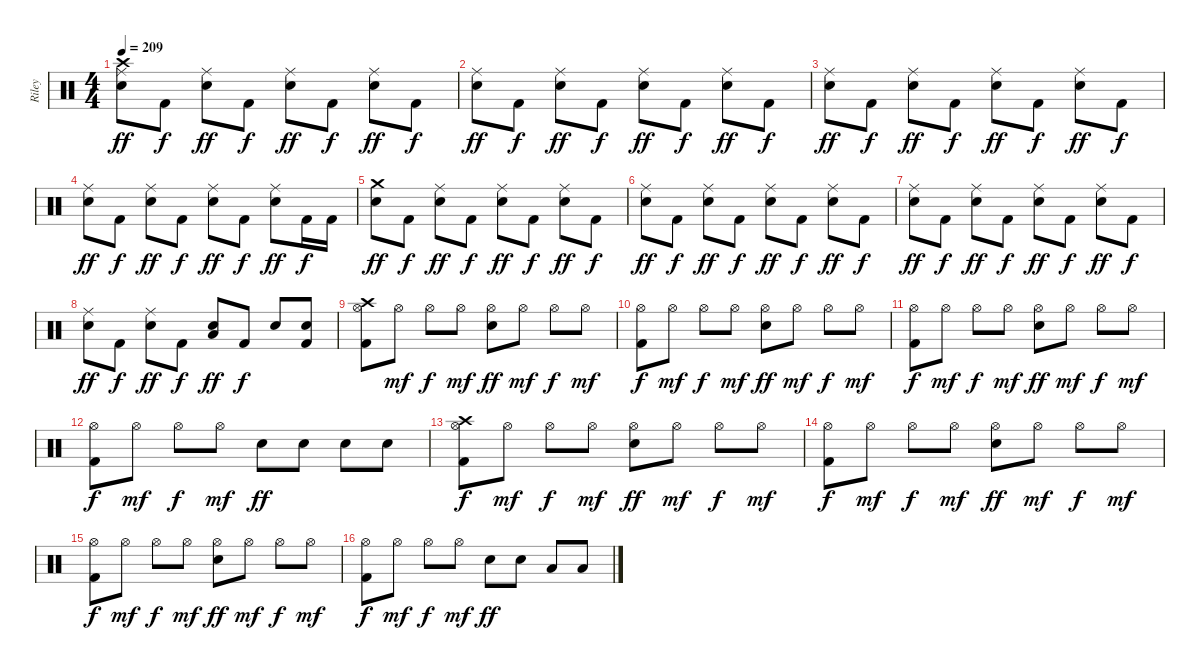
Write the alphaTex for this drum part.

\track ("Riley" "Riley") {instrument percussion}
\staff {score}
\articulation defaults
\ts (4 4)
\tempo 209
\clef neutral
\ks c
("Crash high (hit)" "Ride (middle)" "Electric Snare (hit)").8{dy ff} "Kick (hit) 2".8{dy f} ("Ride (middle)" "Electric Snare (hit)").8{dy ff} "Kick (hit) 2".8{dy f} ("Ride (middle)" "Electric Snare (hit)").8{dy ff} "Kick (hit) 2".8{dy f} ("Ride (middle)" "Electric Snare (hit)").8{dy ff} "Kick (hit) 2".8{dy f} |
("Ride (middle)" "Electric Snare (hit)").8{dy ff} "Kick (hit) 2".8{dy f} ("Ride (middle)" "Electric Snare (hit)").8{dy ff} "Kick (hit) 2".8{dy f} ("Ride (middle)" "Electric Snare (hit)").8{dy ff} "Kick (hit) 2".8{dy f} ("Ride (middle)" "Electric Snare (hit)").8{dy ff} "Kick (hit) 2".8{dy f} |
("Ride (middle)" "Electric Snare (hit)").8{dy ff} "Kick (hit) 2".8{dy f} ("Ride (middle)" "Electric Snare (hit)").8{dy ff} "Kick (hit) 2".8{dy f} ("Ride (middle)" "Electric Snare (hit)").8{dy ff} "Kick (hit) 2".8{dy f} ("Ride (middle)" "Electric Snare (hit)").8{dy ff} "Kick (hit) 2".8{dy f} |
("Ride (middle)" "Electric Snare (hit)").8{dy ff} "Kick (hit) 2".8{dy f} ("Ride (middle)" "Electric Snare (hit)").8{dy ff} "Kick (hit) 2".8{dy f} ("Ride (middle)" "Electric Snare (hit)").8{dy ff} "Kick (hit) 2".8{dy f} ("Ride (middle)" "Electric Snare (hit)").8{dy ff} "Kick (hit) 2".16{dy f} "Kick (hit) 2".16 |
("Crash medium (hit)" "Electric Snare (hit)").8{dy ff} "Kick (hit) 2".8{dy f} ("Ride (middle)" "Electric Snare (hit)").8{dy ff} "Kick (hit) 2".8{dy f} ("Ride (middle)" "Electric Snare (hit)").8{dy ff} "Kick (hit) 2".8{dy f} ("Ride (middle)" "Electric Snare (hit)").8{dy ff} "Kick (hit) 2".8{dy f} |
("Ride (middle)" "Electric Snare (hit)").8{dy ff} "Kick (hit) 2".8{dy f} ("Ride (middle)" "Electric Snare (hit)").8{dy ff} "Kick (hit) 2".8{dy f} ("Ride (middle)" "Electric Snare (hit)").8{dy ff} "Kick (hit) 2".8{dy f} ("Ride (middle)" "Electric Snare (hit)").8{dy ff} "Kick (hit) 2".8{dy f} |
("Ride (middle)" "Electric Snare (hit)").8{dy ff} "Kick (hit) 2".8{dy f} ("Ride (middle)" "Electric Snare (hit)").8{dy ff} "Kick (hit) 2".8{dy f} ("Ride (middle)" "Electric Snare (hit)").8{dy ff} "Kick (hit) 2".8{dy f} ("Ride (middle)" "Electric Snare (hit)").8{dy ff} "Kick (hit) 2".8{dy f} |
("Ride (middle)" "Electric Snare (hit)").8{dy ff} "Kick (hit) 2".8{dy f} ("Ride (middle)" "Electric Snare (hit)").8{dy ff} "Kick (hit) 2".8{dy f} ("Low Tom (hit)" "Electric Snare (hit)").8{dy ff} "Kick (hit) 2".8{dy f} "Electric Snare (hit)".8 ("Electric Snare (hit)" "Kick (hit) 2").8 |
("Crash high (hit)" "Hi-Hat (open)" "Kick (hit) 2").8 "Hi-Hat (open)".8{dy mf} "Hi-Hat (open)".8{dy f} "Hi-Hat (open)".8{dy mf} ("Hi-Hat (open)" "Electric Snare (hit)").8{dy ff} "Hi-Hat (open)".8{dy mf} "Hi-Hat (open)".8{dy f} "Hi-Hat (open)".8{dy mf} |
("Hi-Hat (open)" "Kick (hit) 2").8{dy f} "Hi-Hat (open)".8{dy mf} "Hi-Hat (open)".8{dy f} "Hi-Hat (open)".8{dy mf} ("Hi-Hat (open)" "Electric Snare (hit)").8{dy ff} "Hi-Hat (open)".8{dy mf} "Hi-Hat (open)".8{dy f} "Hi-Hat (open)".8{dy mf} |
("Hi-Hat (open)" "Kick (hit) 2").8{dy f} "Hi-Hat (open)".8{dy mf} "Hi-Hat (open)".8{dy f} "Hi-Hat (open)".8{dy mf} ("Hi-Hat (open)" "Electric Snare (hit)").8{dy ff} "Hi-Hat (open)".8{dy mf} "Hi-Hat (open)".8{dy f} "Hi-Hat (open)".8{dy mf} |
("Hi-Hat (open)" "Kick (hit) 2").8{dy f} "Hi-Hat (open)".8{dy mf} "Hi-Hat (open)".8{dy f} "Hi-Hat (open)".8{dy mf} "Electric Snare (hit)".8{dy ff} "Electric Snare (hit)".8 "Electric Snare (hit)".8 "Electric Snare (hit)".8 |
("Crash high (hit)" "Hi-Hat (open)" "Kick (hit) 2").8{dy f} "Hi-Hat (open)".8{dy mf} "Hi-Hat (open)".8{dy f} "Hi-Hat (open)".8{dy mf} ("Hi-Hat (open)" "Electric Snare (hit)").8{dy ff} "Hi-Hat (open)".8{dy mf} "Hi-Hat (open)".8{dy f} "Hi-Hat (open)".8{dy mf} |
("Hi-Hat (open)" "Kick (hit) 2").8{dy f} "Hi-Hat (open)".8{dy mf} "Hi-Hat (open)".8{dy f} "Hi-Hat (open)".8{dy mf} ("Hi-Hat (open)" "Electric Snare (hit)").8{dy ff} "Hi-Hat (open)".8{dy mf} "Hi-Hat (open)".8{dy f} "Hi-Hat (open)".8{dy mf} |
("Hi-Hat (open)" "Kick (hit) 2").8{dy f} "Hi-Hat (open)".8{dy mf} "Hi-Hat (open)".8{dy f} "Hi-Hat (open)".8{dy mf} ("Hi-Hat (open)" "Electric Snare (hit)").8{dy ff} "Hi-Hat (open)".8{dy mf} "Hi-Hat (open)".8{dy f} "Hi-Hat (open)".8{dy mf} |
("Hi-Hat (open)" "Kick (hit) 2").8{dy f} "Hi-Hat (open)".8{dy mf} "Hi-Hat (open)".8{dy f} "Hi-Hat (open)".8{dy mf} "Electric Snare (hit)".8{dy ff} "Electric Snare (hit)".8 "Low Tom (hit)".8 "Low Tom (hit)".8
